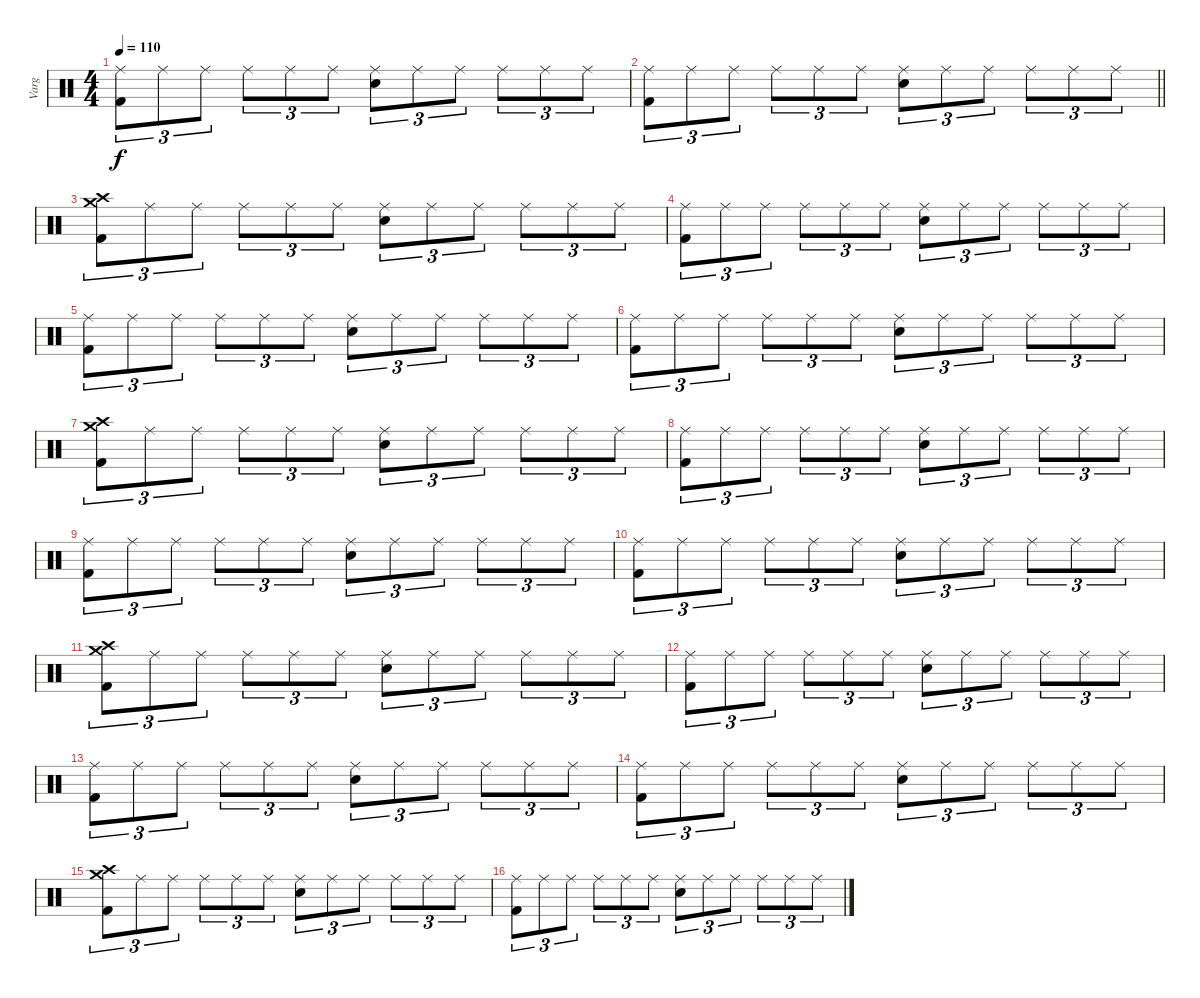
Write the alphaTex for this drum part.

\track ("Varg" "Varg") {instrument percussion}
\staff {score}
\articulation defaults
\ts (4 4)
\tempo 110
\clef neutral
\ks c
("Ride (middle)" "Kick (hit) 2").8{tu (3 2) dy f} "Ride (middle)".8{tu (3 2)} "Ride (middle)".8{tu (3 2)} "Ride (middle)".8{tu (3 2)} "Ride (middle)".8{tu (3 2)} "Ride (middle)".8{tu (3 2)} ("Ride (middle)" "Snare (hit) 2").8{tu (3 2)} "Ride (middle)".8{tu (3 2)} "Ride (middle)".8{tu (3 2)} "Ride (middle)".8{tu (3 2)} "Ride (middle)".8{tu (3 2)} "Ride (middle)".8{tu (3 2)} |
\barLineRight lightlight
("Ride (middle)" "Kick (hit) 2").8{tu (3 2)} "Ride (middle)".8{tu (3 2)} "Ride (middle)".8{tu (3 2)} "Ride (middle)".8{tu (3 2)} "Ride (middle)".8{tu (3 2)} "Ride (middle)".8{tu (3 2)} ("Ride (middle)" "Snare (hit) 2").8{tu (3 2)} "Ride (middle)".8{tu (3 2)} "Ride (middle)".8{tu (3 2)} "Ride (middle)".8{tu (3 2)} "Ride (middle)".8{tu (3 2)} "Ride (middle)".8{tu (3 2)} |
("Crash high (hit)" "Crash medium (hit)" "Kick (hit) 2").8{tu (3 2)} "Ride (middle)".8{tu (3 2)} "Ride (middle)".8{tu (3 2)} "Ride (middle)".8{tu (3 2)} "Ride (middle)".8{tu (3 2)} "Ride (middle)".8{tu (3 2)} ("Ride (middle)" "Snare (hit) 2").8{tu (3 2)} "Ride (middle)".8{tu (3 2)} "Ride (middle)".8{tu (3 2)} "Ride (middle)".8{tu (3 2)} "Ride (middle)".8{tu (3 2)} "Ride (middle)".8{tu (3 2)} |
("Ride (middle)" "Kick (hit) 2").8{tu (3 2)} "Ride (middle)".8{tu (3 2)} "Ride (middle)".8{tu (3 2)} "Ride (middle)".8{tu (3 2)} "Ride (middle)".8{tu (3 2)} "Ride (middle)".8{tu (3 2)} ("Ride (middle)" "Snare (hit) 2").8{tu (3 2)} "Ride (middle)".8{tu (3 2)} "Ride (middle)".8{tu (3 2)} "Ride (middle)".8{tu (3 2)} "Ride (middle)".8{tu (3 2)} "Ride (middle)".8{tu (3 2)} |
("Ride (middle)" "Kick (hit) 2").8{tu (3 2)} "Ride (middle)".8{tu (3 2)} "Ride (middle)".8{tu (3 2)} "Ride (middle)".8{tu (3 2)} "Ride (middle)".8{tu (3 2)} "Ride (middle)".8{tu (3 2)} ("Ride (middle)" "Snare (hit) 2").8{tu (3 2)} "Ride (middle)".8{tu (3 2)} "Ride (middle)".8{tu (3 2)} "Ride (middle)".8{tu (3 2)} "Ride (middle)".8{tu (3 2)} "Ride (middle)".8{tu (3 2)} |
("Ride (middle)" "Kick (hit) 2").8{tu (3 2)} "Ride (middle)".8{tu (3 2)} "Ride (middle)".8{tu (3 2)} "Ride (middle)".8{tu (3 2)} "Ride (middle)".8{tu (3 2)} "Ride (middle)".8{tu (3 2)} ("Ride (middle)" "Snare (hit) 2").8{tu (3 2)} "Ride (middle)".8{tu (3 2)} "Ride (middle)".8{tu (3 2)} "Ride (middle)".8{tu (3 2)} "Ride (middle)".8{tu (3 2)} "Ride (middle)".8{tu (3 2)} |
("Crash high (hit)" "Crash medium (hit)" "Kick (hit) 2").8{tu (3 2)} "Ride (middle)".8{tu (3 2)} "Ride (middle)".8{tu (3 2)} "Ride (middle)".8{tu (3 2)} "Ride (middle)".8{tu (3 2)} "Ride (middle)".8{tu (3 2)} ("Ride (middle)" "Snare (hit) 2").8{tu (3 2)} "Ride (middle)".8{tu (3 2)} "Ride (middle)".8{tu (3 2)} "Ride (middle)".8{tu (3 2)} "Ride (middle)".8{tu (3 2)} "Ride (middle)".8{tu (3 2)} |
("Ride (middle)" "Kick (hit) 2").8{tu (3 2)} "Ride (middle)".8{tu (3 2)} "Ride (middle)".8{tu (3 2)} "Ride (middle)".8{tu (3 2)} "Ride (middle)".8{tu (3 2)} "Ride (middle)".8{tu (3 2)} ("Ride (middle)" "Snare (hit) 2").8{tu (3 2)} "Ride (middle)".8{tu (3 2)} "Ride (middle)".8{tu (3 2)} "Ride (middle)".8{tu (3 2)} "Ride (middle)".8{tu (3 2)} "Ride (middle)".8{tu (3 2)} |
("Ride (middle)" "Kick (hit) 2").8{tu (3 2)} "Ride (middle)".8{tu (3 2)} "Ride (middle)".8{tu (3 2)} "Ride (middle)".8{tu (3 2)} "Ride (middle)".8{tu (3 2)} "Ride (middle)".8{tu (3 2)} ("Ride (middle)" "Snare (hit) 2").8{tu (3 2)} "Ride (middle)".8{tu (3 2)} "Ride (middle)".8{tu (3 2)} "Ride (middle)".8{tu (3 2)} "Ride (middle)".8{tu (3 2)} "Ride (middle)".8{tu (3 2)} |
("Ride (middle)" "Kick (hit) 2").8{tu (3 2)} "Ride (middle)".8{tu (3 2)} "Ride (middle)".8{tu (3 2)} "Ride (middle)".8{tu (3 2)} "Ride (middle)".8{tu (3 2)} "Ride (middle)".8{tu (3 2)} ("Ride (middle)" "Snare (hit) 2").8{tu (3 2)} "Ride (middle)".8{tu (3 2)} "Ride (middle)".8{tu (3 2)} "Ride (middle)".8{tu (3 2)} "Ride (middle)".8{tu (3 2)} "Ride (middle)".8{tu (3 2)} |
("Crash high (hit)" "Crash medium (hit)" "Kick (hit) 2").8{tu (3 2)} "Ride (middle)".8{tu (3 2)} "Ride (middle)".8{tu (3 2)} "Ride (middle)".8{tu (3 2)} "Ride (middle)".8{tu (3 2)} "Ride (middle)".8{tu (3 2)} ("Ride (middle)" "Snare (hit) 2").8{tu (3 2)} "Ride (middle)".8{tu (3 2)} "Ride (middle)".8{tu (3 2)} "Ride (middle)".8{tu (3 2)} "Ride (middle)".8{tu (3 2)} "Ride (middle)".8{tu (3 2)} |
("Ride (middle)" "Kick (hit) 2").8{tu (3 2)} "Ride (middle)".8{tu (3 2)} "Ride (middle)".8{tu (3 2)} "Ride (middle)".8{tu (3 2)} "Ride (middle)".8{tu (3 2)} "Ride (middle)".8{tu (3 2)} ("Ride (middle)" "Snare (hit) 2").8{tu (3 2)} "Ride (middle)".8{tu (3 2)} "Ride (middle)".8{tu (3 2)} "Ride (middle)".8{tu (3 2)} "Ride (middle)".8{tu (3 2)} "Ride (middle)".8{tu (3 2)} |
("Ride (middle)" "Kick (hit) 2").8{tu (3 2)} "Ride (middle)".8{tu (3 2)} "Ride (middle)".8{tu (3 2)} "Ride (middle)".8{tu (3 2)} "Ride (middle)".8{tu (3 2)} "Ride (middle)".8{tu (3 2)} ("Ride (middle)" "Snare (hit) 2").8{tu (3 2)} "Ride (middle)".8{tu (3 2)} "Ride (middle)".8{tu (3 2)} "Ride (middle)".8{tu (3 2)} "Ride (middle)".8{tu (3 2)} "Ride (middle)".8{tu (3 2)} |
("Ride (middle)" "Kick (hit) 2").8{tu (3 2)} "Ride (middle)".8{tu (3 2)} "Ride (middle)".8{tu (3 2)} "Ride (middle)".8{tu (3 2)} "Ride (middle)".8{tu (3 2)} "Ride (middle)".8{tu (3 2)} ("Ride (middle)" "Snare (hit) 2").8{tu (3 2)} "Ride (middle)".8{tu (3 2)} "Ride (middle)".8{tu (3 2)} "Ride (middle)".8{tu (3 2)} "Ride (middle)".8{tu (3 2)} "Ride (middle)".8{tu (3 2)} |
("Crash high (hit)" "Crash medium (hit)" "Kick (hit) 2").8{tu (3 2)} "Ride (middle)".8{tu (3 2)} "Ride (middle)".8{tu (3 2)} "Ride (middle)".8{tu (3 2)} "Ride (middle)".8{tu (3 2)} "Ride (middle)".8{tu (3 2)} ("Ride (middle)" "Snare (hit) 2").8{tu (3 2)} "Ride (middle)".8{tu (3 2)} "Ride (middle)".8{tu (3 2)} "Ride (middle)".8{tu (3 2)} "Ride (middle)".8{tu (3 2)} "Ride (middle)".8{tu (3 2)} |
("Ride (middle)" "Kick (hit) 2").8{tu (3 2)} "Ride (middle)".8{tu (3 2)} "Ride (middle)".8{tu (3 2)} "Ride (middle)".8{tu (3 2)} "Ride (middle)".8{tu (3 2)} "Ride (middle)".8{tu (3 2)} ("Ride (middle)" "Snare (hit) 2").8{tu (3 2)} "Ride (middle)".8{tu (3 2)} "Ride (middle)".8{tu (3 2)} "Ride (middle)".8{tu (3 2)} "Ride (middle)".8{tu (3 2)} "Ride (middle)".8{tu (3 2)}
